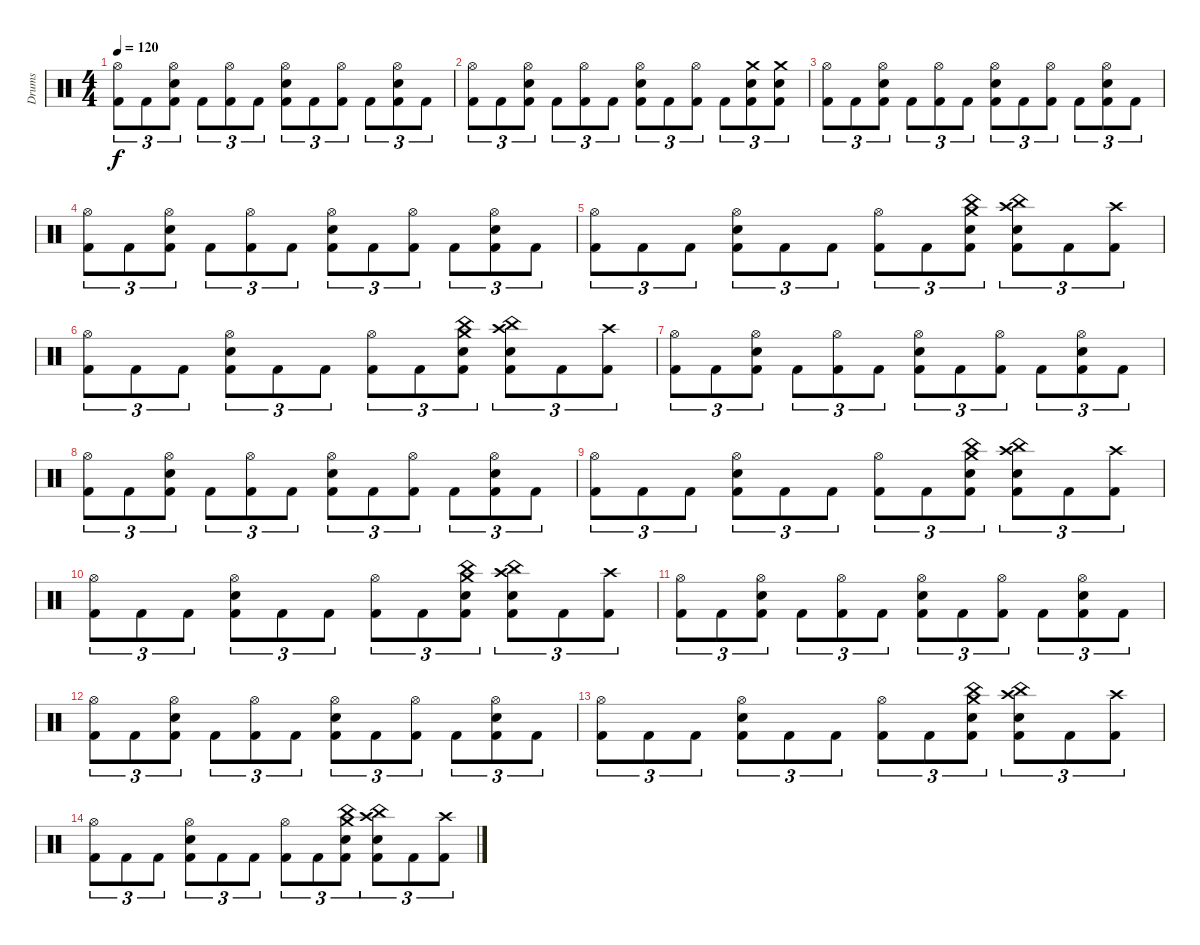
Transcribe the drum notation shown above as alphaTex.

\track ("Drums" "Drums") {instrument percussion}
\staff {score}
\articulation defaults
\ts (4 4)
\tempo 120
\clef neutral
\ks c
("Hi-Hat (open)" "Kick (hit) 2").8{tu (3 2) dy f} "Kick (hit) 2".8{tu (3 2)} ("Hi-Hat (open)" "Snare (hit) 2" "Kick (hit) 2").8{tu (3 2)} "Kick (hit) 2".8{tu (3 2)} ("Hi-Hat (open)" "Kick (hit) 2").8{tu (3 2)} "Kick (hit) 2".8{tu (3 2)} ("Hi-Hat (open)" "Snare (hit) 2" "Kick (hit) 2").8{tu (3 2)} "Kick (hit) 2".8{tu (3 2)} ("Hi-Hat (open)" "Kick (hit) 2").8{tu (3 2)} "Kick (hit) 2".8{tu (3 2)} ("Hi-Hat (open)" "Snare (hit) 2" "Kick (hit) 2").8{tu (3 2)} "Kick (hit) 2".8{tu (3 2)} |
("Hi-Hat (open)" "Kick (hit) 2").8{tu (3 2)} "Kick (hit) 2".8{tu (3 2)} ("Hi-Hat (open)" "Snare (hit) 2" "Kick (hit) 2").8{tu (3 2)} "Kick (hit) 2".8{tu (3 2)} ("Hi-Hat (open)" "Kick (hit) 2").8{tu (3 2)} "Kick (hit) 2".8{tu (3 2)} ("Hi-Hat (open)" "Snare (hit) 2" "Kick (hit) 2").8{tu (3 2)} "Kick (hit) 2".8{tu (3 2)} ("Hi-Hat (open)" "Kick (hit) 2").8{tu (3 2)} "Kick (hit) 2".8{tu (3 2)} ("Crash medium (hit)" "Snare (hit) 2" "Kick (hit) 2").8{tu (3 2)} ("Crash medium (hit)" "Snare (hit) 2" "Kick (hit) 2").8{tu (3 2)} |
("Hi-Hat (open)" "Kick (hit) 2").8{tu (3 2)} "Kick (hit) 2".8{tu (3 2)} ("Hi-Hat (open)" "Snare (hit) 2" "Kick (hit) 2").8{tu (3 2)} "Kick (hit) 2".8{tu (3 2)} ("Hi-Hat (open)" "Kick (hit) 2").8{tu (3 2)} "Kick (hit) 2".8{tu (3 2)} ("Hi-Hat (open)" "Snare (hit) 2" "Kick (hit) 2").8{tu (3 2)} "Kick (hit) 2".8{tu (3 2)} ("Hi-Hat (open)" "Kick (hit) 2").8{tu (3 2)} "Kick (hit) 2".8{tu (3 2)} ("Hi-Hat (open)" "Snare (hit) 2" "Kick (hit) 2").8{tu (3 2)} "Kick (hit) 2".8{tu (3 2)} |
("Hi-Hat (open)" "Kick (hit) 2").8{tu (3 2)} "Kick (hit) 2".8{tu (3 2)} ("Hi-Hat (open)" "Snare (hit) 2" "Kick (hit) 2").8{tu (3 2)} "Kick (hit) 2".8{tu (3 2)} ("Hi-Hat (open)" "Kick (hit) 2").8{tu (3 2)} "Kick (hit) 2".8{tu (3 2)} ("Hi-Hat (open)" "Snare (hit) 2" "Kick (hit) 2").8{tu (3 2)} "Kick (hit) 2".8{tu (3 2)} ("Hi-Hat (open)" "Kick (hit) 2").8{tu (3 2)} "Kick (hit) 2".8{tu (3 2)} ("Hi-Hat (open)" "Snare (hit) 2" "Kick (hit) 2").8{tu (3 2)} "Kick (hit) 2".8{tu (3 2)} |
("Hi-Hat (open)" "Kick (hit) 2").8{tu (3 2)} "Kick (hit) 2".8{tu (3 2)} "Kick (hit) 2".8{tu (3 2)} ("Hi-Hat (open)" "Snare (hit) 2" "Kick (hit) 2").8{tu (3 2)} "Kick (hit) 2".8{tu (3 2)} "Kick (hit) 2".8{tu (3 2)} ("Hi-Hat (open)" "Kick (hit) 2").8{tu (3 2)} "Kick (hit) 2".8{tu (3 2)} ("China (hit)" "Crash medium (hit)" "Snare (hit) 2" "Kick (hit) 2").8{tu (3 2)} ("China (hit)" "Crash high (hit)" "Snare (hit) 2" "Kick (hit) 2").8{tu (3 2)} "Kick (hit) 2".8{tu (3 2)} ("Crash high (hit)" "Kick (hit) 2").8{tu (3 2)} |
("Hi-Hat (open)" "Kick (hit) 2").8{tu (3 2)} "Kick (hit) 2".8{tu (3 2)} "Kick (hit) 2".8{tu (3 2)} ("Hi-Hat (open)" "Snare (hit) 2" "Kick (hit) 2").8{tu (3 2)} "Kick (hit) 2".8{tu (3 2)} "Kick (hit) 2".8{tu (3 2)} ("Hi-Hat (open)" "Kick (hit) 2").8{tu (3 2)} "Kick (hit) 2".8{tu (3 2)} ("China (hit)" "Crash medium (hit)" "Snare (hit) 2" "Kick (hit) 2").8{tu (3 2)} ("China (hit)" "Crash high (hit)" "Snare (hit) 2" "Kick (hit) 2").8{tu (3 2)} "Kick (hit) 2".8{tu (3 2)} ("Crash high (hit)" "Kick (hit) 2").8{tu (3 2)} |
("Hi-Hat (open)" "Kick (hit) 2").8{tu (3 2)} "Kick (hit) 2".8{tu (3 2)} ("Hi-Hat (open)" "Snare (hit) 2" "Kick (hit) 2").8{tu (3 2)} "Kick (hit) 2".8{tu (3 2)} ("Hi-Hat (open)" "Kick (hit) 2").8{tu (3 2)} "Kick (hit) 2".8{tu (3 2)} ("Hi-Hat (open)" "Snare (hit) 2" "Kick (hit) 2").8{tu (3 2)} "Kick (hit) 2".8{tu (3 2)} ("Hi-Hat (open)" "Kick (hit) 2").8{tu (3 2)} "Kick (hit) 2".8{tu (3 2)} ("Hi-Hat (open)" "Snare (hit) 2" "Kick (hit) 2").8{tu (3 2)} "Kick (hit) 2".8{tu (3 2)} |
("Hi-Hat (open)" "Kick (hit) 2").8{tu (3 2)} "Kick (hit) 2".8{tu (3 2)} ("Hi-Hat (open)" "Snare (hit) 2" "Kick (hit) 2").8{tu (3 2)} "Kick (hit) 2".8{tu (3 2)} ("Hi-Hat (open)" "Kick (hit) 2").8{tu (3 2)} "Kick (hit) 2".8{tu (3 2)} ("Hi-Hat (open)" "Snare (hit) 2" "Kick (hit) 2").8{tu (3 2)} "Kick (hit) 2".8{tu (3 2)} ("Hi-Hat (open)" "Kick (hit) 2").8{tu (3 2)} "Kick (hit) 2".8{tu (3 2)} ("Hi-Hat (open)" "Snare (hit) 2" "Kick (hit) 2").8{tu (3 2)} "Kick (hit) 2".8{tu (3 2)} |
("Hi-Hat (open)" "Kick (hit) 2").8{tu (3 2)} "Kick (hit) 2".8{tu (3 2)} "Kick (hit) 2".8{tu (3 2)} ("Hi-Hat (open)" "Snare (hit) 2" "Kick (hit) 2").8{tu (3 2)} "Kick (hit) 2".8{tu (3 2)} "Kick (hit) 2".8{tu (3 2)} ("Hi-Hat (open)" "Kick (hit) 2").8{tu (3 2)} "Kick (hit) 2".8{tu (3 2)} ("China (hit)" "Crash medium (hit)" "Snare (hit) 2" "Kick (hit) 2").8{tu (3 2)} ("China (hit)" "Crash high (hit)" "Snare (hit) 2" "Kick (hit) 2").8{tu (3 2)} "Kick (hit) 2".8{tu (3 2)} ("Crash high (hit)" "Kick (hit) 2").8{tu (3 2)} |
("Hi-Hat (open)" "Kick (hit) 2").8{tu (3 2)} "Kick (hit) 2".8{tu (3 2)} "Kick (hit) 2".8{tu (3 2)} ("Hi-Hat (open)" "Snare (hit) 2" "Kick (hit) 2").8{tu (3 2)} "Kick (hit) 2".8{tu (3 2)} "Kick (hit) 2".8{tu (3 2)} ("Hi-Hat (open)" "Kick (hit) 2").8{tu (3 2)} "Kick (hit) 2".8{tu (3 2)} ("China (hit)" "Crash medium (hit)" "Snare (hit) 2" "Kick (hit) 2").8{tu (3 2)} ("China (hit)" "Crash high (hit)" "Snare (hit) 2" "Kick (hit) 2").8{tu (3 2)} "Kick (hit) 2".8{tu (3 2)} ("Crash high (hit)" "Kick (hit) 2").8{tu (3 2)} |
("Hi-Hat (open)" "Kick (hit) 2").8{tu (3 2) volume 8} "Kick (hit) 2".8{tu (3 2)} ("Hi-Hat (open)" "Snare (hit) 2" "Kick (hit) 2").8{tu (3 2)} "Kick (hit) 2".8{tu (3 2)} ("Hi-Hat (open)" "Kick (hit) 2").8{tu (3 2)} "Kick (hit) 2".8{tu (3 2)} ("Hi-Hat (open)" "Snare (hit) 2" "Kick (hit) 2").8{tu (3 2)} "Kick (hit) 2".8{tu (3 2)} ("Hi-Hat (open)" "Kick (hit) 2").8{tu (3 2)} "Kick (hit) 2".8{tu (3 2)} ("Hi-Hat (open)" "Snare (hit) 2" "Kick (hit) 2").8{tu (3 2)} "Kick (hit) 2".8{tu (3 2)} |
("Hi-Hat (open)" "Kick (hit) 2").8{tu (3 2)} "Kick (hit) 2".8{tu (3 2)} ("Hi-Hat (open)" "Snare (hit) 2" "Kick (hit) 2").8{tu (3 2)} "Kick (hit) 2".8{tu (3 2)} ("Hi-Hat (open)" "Kick (hit) 2").8{tu (3 2)} "Kick (hit) 2".8{tu (3 2)} ("Hi-Hat (open)" "Snare (hit) 2" "Kick (hit) 2").8{tu (3 2)} "Kick (hit) 2".8{tu (3 2)} ("Hi-Hat (open)" "Kick (hit) 2").8{tu (3 2)} "Kick (hit) 2".8{tu (3 2)} ("Hi-Hat (open)" "Snare (hit) 2" "Kick (hit) 2").8{tu (3 2)} "Kick (hit) 2".8{tu (3 2)} |
("Hi-Hat (open)" "Kick (hit) 2").8{tu (3 2) volume 0} "Kick (hit) 2".8{tu (3 2)} "Kick (hit) 2".8{tu (3 2)} ("Hi-Hat (open)" "Snare (hit) 2" "Kick (hit) 2").8{tu (3 2)} "Kick (hit) 2".8{tu (3 2)} "Kick (hit) 2".8{tu (3 2)} ("Hi-Hat (open)" "Kick (hit) 2").8{tu (3 2)} "Kick (hit) 2".8{tu (3 2)} ("China (hit)" "Crash medium (hit)" "Snare (hit) 2" "Kick (hit) 2").8{tu (3 2)} ("China (hit)" "Crash high (hit)" "Snare (hit) 2" "Kick (hit) 2").8{tu (3 2)} "Kick (hit) 2".8{tu (3 2)} ("Crash high (hit)" "Kick (hit) 2").8{tu (3 2)} |
("Hi-Hat (open)" "Kick (hit) 2").8{tu (3 2)} "Kick (hit) 2".8{tu (3 2)} "Kick (hit) 2".8{tu (3 2)} ("Hi-Hat (open)" "Snare (hit) 2" "Kick (hit) 2").8{tu (3 2)} "Kick (hit) 2".8{tu (3 2)} "Kick (hit) 2".8{tu (3 2)} ("Hi-Hat (open)" "Kick (hit) 2").8{tu (3 2)} "Kick (hit) 2".8{tu (3 2)} ("China (hit)" "Crash medium (hit)" "Snare (hit) 2" "Kick (hit) 2").8{tu (3 2)} ("China (hit)" "Crash high (hit)" "Snare (hit) 2" "Kick (hit) 2").8{tu (3 2)} "Kick (hit) 2".8{tu (3 2)} ("Crash high (hit)" "Kick (hit) 2").8{tu (3 2)}
